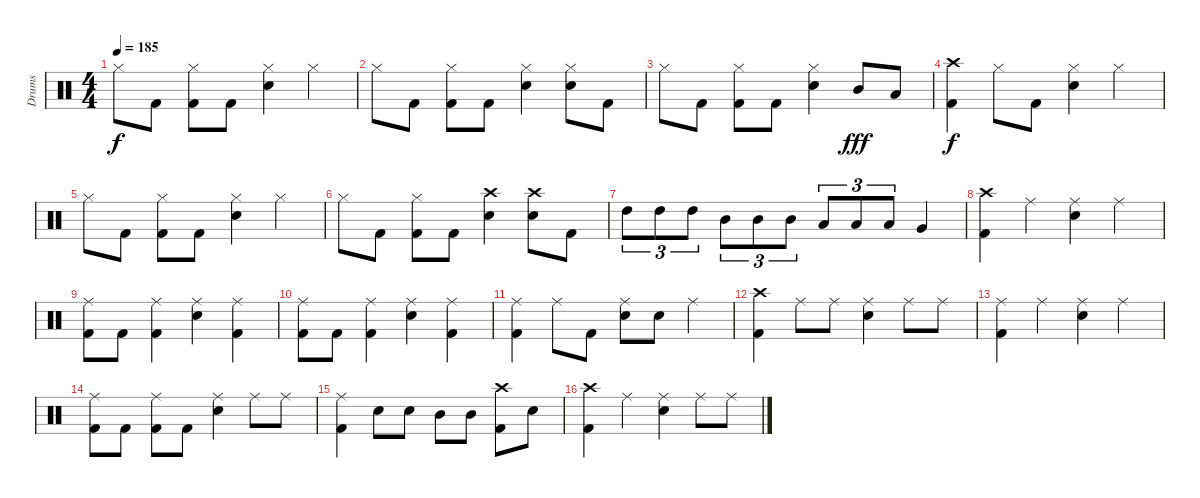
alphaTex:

\track ("Drums" "Drums") {instrument percussion}
\staff {score}
\articulation defaults
\ts (4 4)
\tempo 185
\clef neutral
\ks c "Hi-Hat (closed)".8{dy f} "Kick (hit) 2".8
("Hi-Hat (closed)" "Kick (hit) 2").8 "Kick (hit) 2".8 ("Hi-Hat (closed)" "Snare (hit) 2").4 "Hi-Hat (closed)".4 |
"Hi-Hat (closed)".8 "Kick (hit) 2".8 ("Hi-Hat (closed)" "Kick (hit) 2").8 "Kick (hit) 2".8 ("Hi-Hat (closed)" "Snare (hit) 2").4 ("Hi-Hat (closed)" "Snare (hit) 2").8 "Kick (hit) 2".8 |
"Hi-Hat (closed)".8 "Kick (hit) 2".8 ("Hi-Hat (closed)" "Kick (hit) 2").8 "Kick (hit) 2".8 ("Hi-Hat (closed)" "Snare (hit) 2").4 "Mid Tom (hit)".8{dy fff} "Low Tom (hit)".8 |
("Crash high (hit)" "Kick (hit) 2").4{dy f} "Hi-Hat (closed)".8 "Kick (hit) 2".8 ("Hi-Hat (closed)" "Snare (hit) 2").4 "Hi-Hat (closed)".4 |
"Hi-Hat (closed)".8 "Kick (hit) 2".8 ("Hi-Hat (closed)" "Kick (hit) 2").8 "Kick (hit) 2".8 ("Hi-Hat (closed)" "Snare (hit) 2").4 "Hi-Hat (closed)".4 |
"Hi-Hat (closed)".8 "Kick (hit) 2".8 ("Hi-Hat (closed)" "Kick (hit) 2").8 "Kick (hit) 2".8 ("Crash high (hit)" "Snare (hit) 2").4 ("Crash high (hit)" "Snare (hit) 2").8 "Kick (hit) 2".8 |
"High Tom (hit)".8{tu (3 2)} "High Tom (hit)".8{tu (3 2)} "High Tom (hit)".8{tu (3 2)} "Mid Tom (hit)".8{tu (3 2)} "Mid Tom (hit)".8{tu (3 2)} "Mid Tom (hit)".8{tu (3 2)} "Low Tom (hit)".8{tu (3 2)} "Low Tom (hit)".8{tu (3 2)} "Low Tom (hit)".8{tu (3 2)} "Very Low Tom (hit)".4 |
("Crash high (hit)" "Kick (hit) 2").4 "Ride (middle)".4 ("Ride (middle)" "Snare (hit) 2").4 "Ride (middle)".4 |
("Ride (middle)" "Kick (hit) 2").8 "Kick (hit) 2".8 ("Ride (middle)" "Kick (hit) 2").4 ("Ride (middle)" "Snare (hit) 2").4 ("Ride (middle)" "Kick (hit) 2").4 |
("Ride (middle)" "Kick (hit) 2").8 "Kick (hit) 2".8 ("Ride (middle)" "Kick (hit) 2").4 ("Ride (middle)" "Snare (hit) 2").4 ("Ride (middle)" "Kick (hit) 2").4 |
("Ride (middle)" "Kick (hit) 2").4 "Ride (middle)".8 "Kick (hit) 2".8 ("Ride (middle)" "Snare (hit) 2").8 "Snare (hit) 2".8 "Ride (middle)".4 |
("Crash high (hit)" "Kick (hit) 2").4 "Ride (middle)".8 "Ride (middle)".8 ("Ride (middle)" "Snare (hit) 2").4 "Ride (middle)".8 "Ride (middle)".8 |
("Ride (middle)" "Kick (hit) 2").4 "Ride (middle)".4 ("Ride (middle)" "Snare (hit) 2").4 "Ride (middle)".4 |
("Ride (middle)" "Kick (hit) 2").8 "Kick (hit) 2".8 ("Ride (middle)" "Kick (hit) 2").8 "Kick (hit) 2".8 ("Ride (middle)" "Snare (hit) 2").4 "Ride (middle)".8 "Ride (middle)".8 |
("Ride (middle)" "Kick (hit) 2").4 "Snare (hit) 2".8 "Snare (hit) 2".8 "Mid Tom (hit)".8 "Mid Tom (hit)".8 ("Crash high (hit)" "Kick (hit) 2").8 "Snare (hit) 2".8 |
("Crash high (hit)" "Kick (hit) 2").4 "Ride (middle)".4 ("Ride (middle)" "Snare (hit) 2").4 "Ride (middle)".8 "Ride (middle)".8
